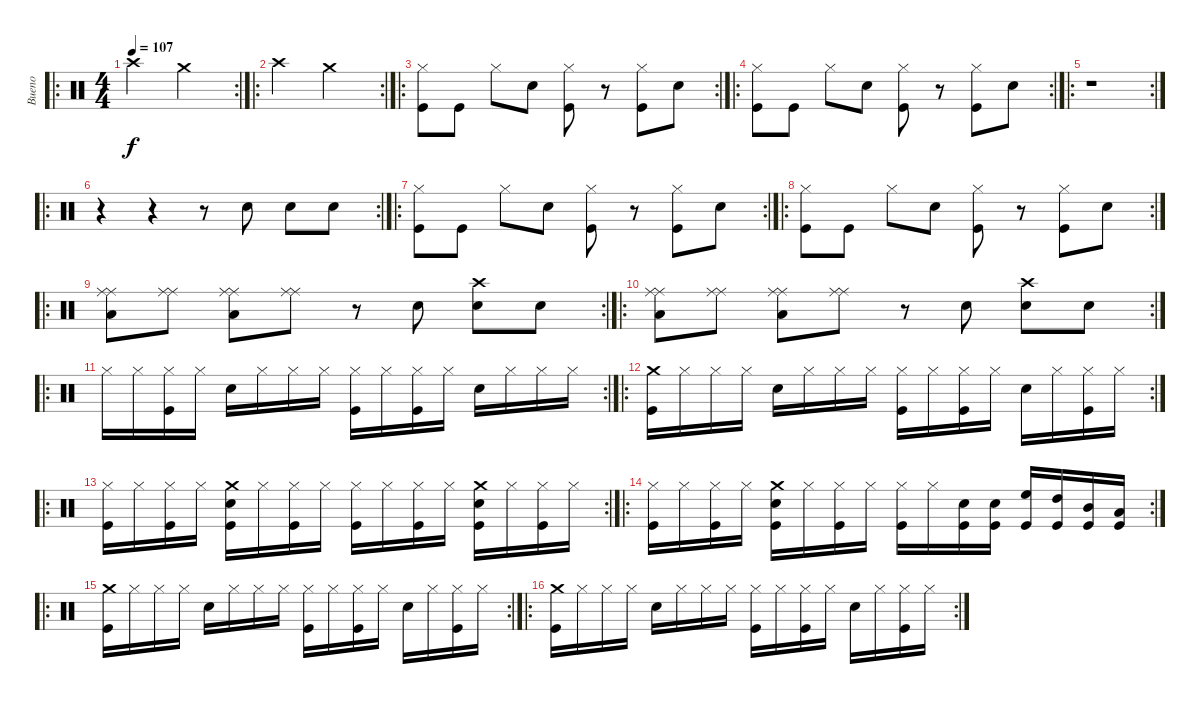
\track ("Bueno" "Bueno") {instrument percussion}
\staff {score}
\articulation defaults
\ro
\rc 2
\ts (4 4)
\tempo 107
\clef neutral
\ks c "Crash high (hit)".2{dy f} "Crash medium (hit)".2
|
\ro
\rc 2 "Crash high (hit)".2 "Crash medium (hit)".2
|
\ro
\rc 2
("Kick (hit)" "Hi-Hat (closed)").8 "Kick (hit)".8 "Hi-Hat (closed)".8 "Electric Snare (hit)".8 ("Kick (hit)" "Hi-Hat (closed)").8 r.8 ("Kick (hit)" "Hi-Hat (closed)").8 "Electric Snare (hit)".8 |
\ro
\rc 2
("Kick (hit)" "Hi-Hat (closed)").8 "Kick (hit)".8 "Hi-Hat (closed)".8 "Electric Snare (hit)".8 ("Kick (hit)" "Hi-Hat (closed)").8 r.8 ("Kick (hit)" "Hi-Hat (closed)").8 "Electric Snare (hit)".8 |
\ro
\rc 2
r.1 |
\ro
\rc 2
r.4 r.4 r.8 "Electric Snare (hit)".8 "Electric Snare (hit)".8 "Electric Snare (hit)".8 |
\ro
\rc 2
("Kick (hit)" "Hi-Hat (closed)").8 "Kick (hit)".8 "Hi-Hat (closed)".8 "Electric Snare (hit)".8 ("Kick (hit)" "Hi-Hat (closed)").8 r.8 ("Kick (hit)" "Hi-Hat (closed)").8 "Electric Snare (hit)".8 |
\ro
\rc 2
("Kick (hit)" "Hi-Hat (closed)").8 "Kick (hit)".8 "Hi-Hat (closed)".8 "Electric Snare (hit)".8 ("Kick (hit)" "Hi-Hat (closed)").8 r.8 ("Kick (hit)" "Hi-Hat (closed)").8 "Electric Snare (hit)".8 |
\ro
\rc 2
("Low Tom (hit)" "Ride (middle)" "Ride (middle)").8 ("Ride (middle)" "Ride (middle)").8 ("Low Tom (hit)" "Ride (middle)" "Ride (middle)").8 ("Ride (middle)" "Ride (middle)").8 r.8 "Electric Snare (hit)".8 ("Electric Snare (hit)" "Crash high (hit)").8 "Electric Snare (hit)".8 |
\ro
\rc 2
("Low Tom (hit)" "Ride (middle)" "Ride (middle)").8 ("Ride (middle)" "Ride (middle)").8 ("Low Tom (hit)" "Ride (middle)" "Ride (middle)").8 ("Ride (middle)" "Ride (middle)").8 r.8 "Electric Snare (hit)".8 ("Electric Snare (hit)" "Crash high (hit)").8 "Electric Snare (hit)".8 |
\ro
\rc 2 "Hi-Hat (closed)".16 "Hi-Hat (closed)".16
("Kick (hit)" "Hi-Hat (closed)").16 "Hi-Hat (closed)".16 "Snare (hit) 2".16 "Hi-Hat (closed)".16 "Hi-Hat (closed)".16 "Hi-Hat (closed)".16 ("Kick (hit)" "Hi-Hat (closed)").16 "Hi-Hat (closed)".16 ("Kick (hit)" "Hi-Hat (closed)").16 "Hi-Hat (closed)".16 "Snare (hit) 2".16 "Hi-Hat (closed)".16 "Hi-Hat (closed)".16 "Hi-Hat (closed)".16 |
\ro
\rc 2
("Kick (hit)" "Crash medium (hit)").16 "Hi-Hat (closed)".16 "Hi-Hat (closed)".16 "Hi-Hat (closed)".16 "Snare (hit) 2".16 "Hi-Hat (closed)".16 "Hi-Hat (closed)".16 "Hi-Hat (closed)".16 ("Kick (hit)" "Hi-Hat (closed)").16 "Hi-Hat (closed)".16 ("Kick (hit)" "Hi-Hat (closed)").16 "Hi-Hat (closed)".16 "Snare (hit) 2".16 "Hi-Hat (closed)".16 ("Kick (hit)" "Hi-Hat (closed)").16 "Hi-Hat (closed)".16 |
\ro
\rc 2
("Kick (hit)" "Hi-Hat (closed)").16 "Hi-Hat (closed)".16 ("Kick (hit)" "Hi-Hat (closed)").16 "Hi-Hat (closed)".16 ("Kick (hit)" "Snare (hit) 2" "Crash medium (hit)").16 "Hi-Hat (closed)".16 ("Kick (hit)" "Hi-Hat (closed)").16 "Hi-Hat (closed)".16 ("Kick (hit)" "Hi-Hat (closed)").16 "Hi-Hat (closed)".16 ("Kick (hit)" "Hi-Hat (closed)").16 "Hi-Hat (closed)".16 ("Kick (hit)" "Snare (hit) 2" "Crash medium (hit)").16 "Hi-Hat (closed)".16 ("Kick (hit)" "Hi-Hat (closed)").16 "Hi-Hat (closed)".16 |
\ro
\rc 2
("Kick (hit)" "Hi-Hat (closed)").16 "Hi-Hat (closed)".16 ("Kick (hit)" "Hi-Hat (closed)").16 "Hi-Hat (closed)".16 ("Kick (hit)" "Snare (hit) 2" "Crash medium (hit)").16 "Hi-Hat (closed)".16 ("Kick (hit)" "Hi-Hat (closed)").16 "Hi-Hat (closed)".16 ("Kick (hit)" "Hi-Hat (closed)").16 "Hi-Hat (closed)".16 ("Snare (hit) 2" "Kick (hit)").16 ("Snare (hit) 2" "Kick (hit)").16 ("High Floor Tom (hit)" "Kick (hit)").16 ("High Tom (hit)" "Kick (hit)").16 ("Mid Tom (hit)" "Kick (hit)").16 ("Low Tom (hit)" "Kick (hit)").16 |
\ro
\rc 2
("Kick (hit)" "Crash medium (hit)").16 "Hi-Hat (closed)".16 "Hi-Hat (closed)".16 "Hi-Hat (closed)".16 "Snare (hit) 2".16 "Hi-Hat (closed)".16 "Hi-Hat (closed)".16 "Hi-Hat (closed)".16 ("Kick (hit)" "Hi-Hat (closed)").16 "Hi-Hat (closed)".16 ("Kick (hit)" "Hi-Hat (closed)").16 "Hi-Hat (closed)".16 "Snare (hit) 2".16 "Hi-Hat (closed)".16 ("Kick (hit)" "Hi-Hat (closed)").16 "Hi-Hat (closed)".16 |
\ro
\rc 2
("Kick (hit)" "Crash medium (hit)").16 "Hi-Hat (closed)".16 "Hi-Hat (closed)".16 "Hi-Hat (closed)".16 "Snare (hit) 2".16 "Hi-Hat (closed)".16 "Hi-Hat (closed)".16 "Hi-Hat (closed)".16 ("Kick (hit)" "Hi-Hat (closed)").16 "Hi-Hat (closed)".16 ("Kick (hit)" "Hi-Hat (closed)").16 "Hi-Hat (closed)".16 "Snare (hit) 2".16 "Hi-Hat (closed)".16 ("Kick (hit)" "Hi-Hat (closed)").16 "Hi-Hat (closed)".16
